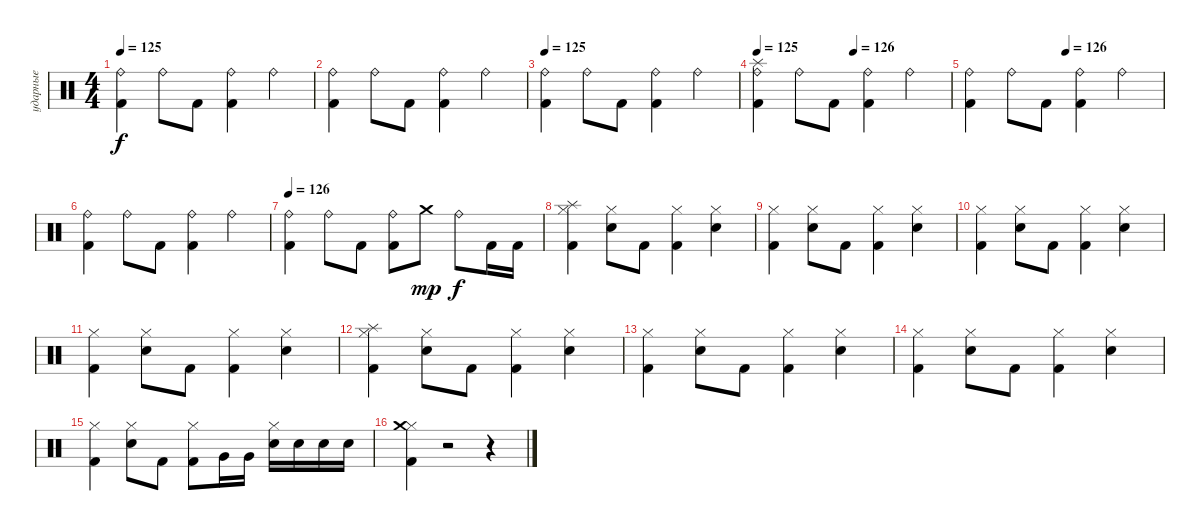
\track ("ударные" "ударные") {instrument percussion}
\staff {score}
\articulation defaults
\ts (4 4)
\tempo 125
\clef neutral
\ks c
("Ride (bell)" "Kick (hit) 2").4{dy f} "Ride (bell)".8 "Kick (hit) 2".8 ("Ride (bell)" "Kick (hit) 2").4 "Ride (bell)".4 |
("Ride (bell)" "Kick (hit) 2").4 "Ride (bell)".8 "Kick (hit) 2".8 ("Ride (bell)" "Kick (hit) 2").4 "Ride (bell)".4 |
\tempo 125
("Kick (hit) 2" "Ride (bell)").4 "Ride (bell)".8 "Kick (hit) 2".8 ("Ride (bell)" "Kick (hit) 2").4 "Ride (bell)".4 |
\tempo 125
\tempo (126 0.5)
("Splash (hit)" "Kick (hit) 2" "Ride (bell)").4 "Ride (bell)".8 "Kick (hit) 2".8 ("Ride (bell)" "Kick (hit) 2").4 "Ride (bell)".4 |
\tempo (126 0.5)
("Kick (hit) 2" "Ride (bell)").4 "Ride (bell)".8 "Kick (hit) 2".8 ("Kick (hit) 2" "Ride (bell)").4 "Ride (bell)".4 |
("Kick (hit) 2" "Ride (bell)").4 "Ride (bell)".8 "Kick (hit) 2".8 ("Kick (hit) 2" "Ride (bell)").4 "Ride (bell)".4 |
\tempo 126
("Ride (bell)" "Kick (hit) 2").4 "Ride (bell)".8 "Kick (hit) 2".8 ("Ride (bell)" "Kick (hit) 2").8 "Crash medium (hit)".8{dy mp} "Ride (bell)".8{dy f} "Kick (hit) 2".16 "Kick (hit) 2".16 |
("Hi-Hat (closed)" "Splash (hit)" "Kick (hit) 2").4 ("Electric Snare (hit)" "Hi-Hat (closed)").8 "Kick (hit) 2".8 ("Hi-Hat (closed)" "Kick (hit) 2").4 ("Electric Snare (hit)" "Hi-Hat (closed)").4 |
("Hi-Hat (closed)" "Kick (hit) 2").4 ("Hi-Hat (closed)" "Electric Snare (hit)").8 "Kick (hit) 2".8 ("Hi-Hat (closed)" "Kick (hit) 2").4 ("Hi-Hat (closed)" "Electric Snare (hit)").4 |
("Hi-Hat (closed)" "Kick (hit) 2").4 ("Hi-Hat (closed)" "Electric Snare (hit)").8 "Kick (hit) 2".8 ("Hi-Hat (closed)" "Kick (hit) 2").4 ("Hi-Hat (closed)" "Electric Snare (hit)").4 |
("Hi-Hat (closed)" "Kick (hit) 2").4 ("Hi-Hat (closed)" "Electric Snare (hit)").8 "Kick (hit) 2".8 ("Hi-Hat (closed)" "Kick (hit) 2").4 ("Hi-Hat (closed)" "Electric Snare (hit)").4 |
("Hi-Hat (closed)" "Splash (hit)" "Kick (hit) 2").4 ("Electric Snare (hit)" "Hi-Hat (closed)").8 "Kick (hit) 2".8 ("Hi-Hat (closed)" "Kick (hit) 2").4 ("Electric Snare (hit)" "Hi-Hat (closed)").4 |
("Hi-Hat (closed)" "Kick (hit) 2").4 ("Hi-Hat (closed)" "Electric Snare (hit)").8 "Kick (hit) 2".8 ("Hi-Hat (closed)" "Kick (hit) 2").4 ("Hi-Hat (closed)" "Electric Snare (hit)").4 |
("Hi-Hat (closed)" "Kick (hit) 2").4 ("Hi-Hat (closed)" "Electric Snare (hit)").8 "Kick (hit) 2".8 ("Hi-Hat (closed)" "Kick (hit) 2").4 ("Hi-Hat (closed)" "Electric Snare (hit)").4 |
("Hi-Hat (closed)" "Kick (hit) 2").4 ("Hi-Hat (closed)" "Electric Snare (hit)").8 "Kick (hit) 2".8 ("Hi-Hat (closed)" "Kick (hit) 2").8 "Very Low Tom (hit)".16 "Very Low Tom (hit)".16 ("Hi-Hat (closed)" "Electric Snare (hit)").16 "Electric Snare (hit)".16 "Snare (hit) 2".16 "Snare (hit) 2".16 |
("Hi-Hat (closed)" "Kick (hit) 2" "Crash medium (hit)").4 r.2 r.4
